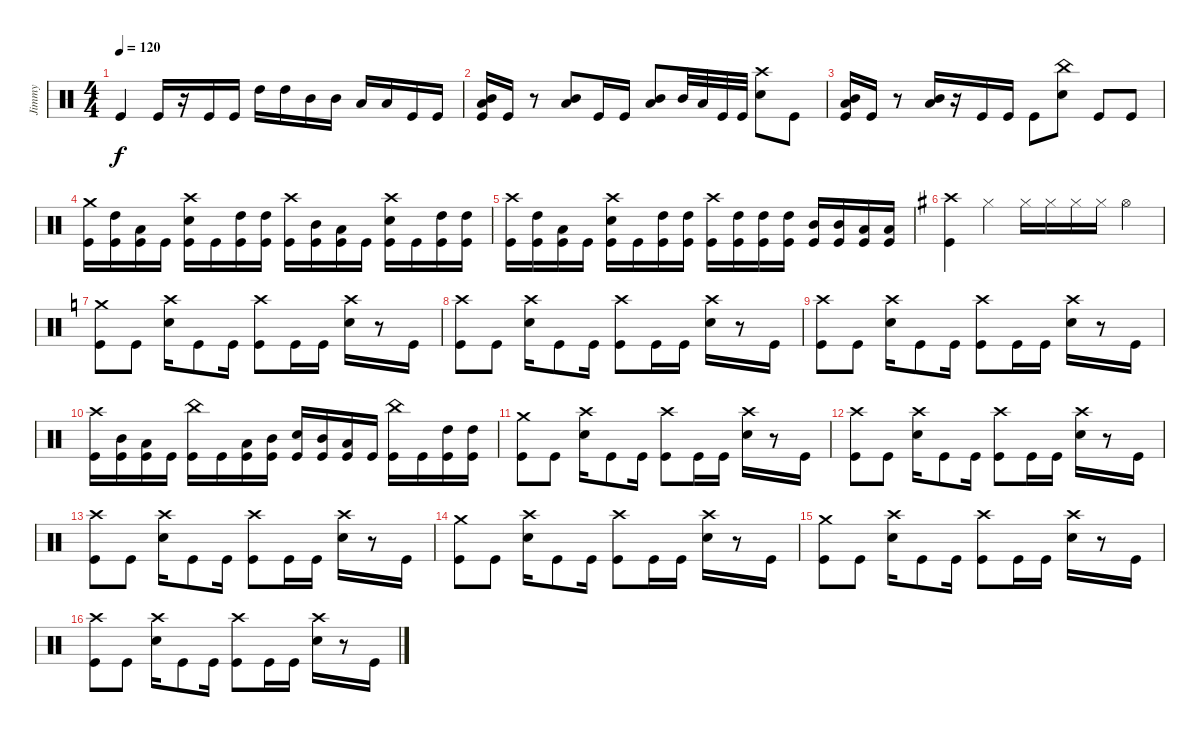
\track ("Jimmy" "Jimmy") {instrument percussion}
\staff {score}
\articulation defaults
\ts (4 4)
\tempo 120
\clef neutral
\ks c "Kick (hit)".4{dy f} "Kick (hit)".16
r.16 "Kick (hit)".16 "Kick (hit)".16 "High Tom (hit)".16 "High Tom (hit)".16 "Mid Tom (hit)".16 "Mid Tom (hit)".16 "Low Tom (hit)".16 "Low Tom (hit)".16 "Kick (hit)".16 "Kick (hit)".16 |
("Kick (hit)" "Mid Tom (hit)" "Low Tom (hit)").16 "Kick (hit)".16 r.8 ("Mid Tom (hit)" "Low Tom (hit)").8 "Kick (hit)".16 "Kick (hit)".16 ("Low Tom (hit)" "Mid Tom (hit)").8 "Mid Tom (hit)".32 "Low Tom (hit)".32 "Kick (hit)".32 "Kick (hit)".32 ("Snare (hit) 2" "Crash high (hit)").8 "Kick (hit)".8 |
("Kick (hit)" "Low Tom (hit)" "Mid Tom (hit)").16 "Kick (hit)".16 r.8 ("Low Tom (hit)" "Mid Tom (hit)").16 r.16 "Kick (hit)".16 "Kick (hit)".16 "Kick (hit)".8 ("Snare (hit) 2" "China (hit)").8 "Kick (hit)".8 "Kick (hit)".8 |
("Kick (hit)" "Crash medium (hit)").16 ("Kick (hit)" "High Tom (hit)").16 ("Kick (hit)" "Low Tom (hit)").16 "Kick (hit)".16 ("Snare (hit) 2" "Crash high (hit)" "Kick (hit)").16 "Kick (hit)".16 ("High Tom (hit)" "Kick (hit)").16 ("High Tom (hit)" "Kick (hit)").16 ("Crash high (hit)" "Kick (hit)").16 ("Mid Tom (hit)" "Kick (hit)").16 ("Low Tom (hit)" "Kick (hit)").16 "Kick (hit)".16 ("Snare (hit) 2" "Crash high (hit)" "Kick (hit)").16 "Kick (hit)".16 ("High Tom (hit)" "Kick (hit)").16 ("High Tom (hit)" "Kick (hit)").16 |
("Kick (hit)" "Crash high (hit)").16 ("Kick (hit)" "High Tom (hit)").16 ("Kick (hit)" "Low Tom (hit)").16 "Kick (hit)".16 ("Snare (hit) 2" "Crash high (hit)" "Kick (hit)").16 "Kick (hit)".16 ("High Tom (hit)" "Kick (hit)").16 ("High Tom (hit)" "Kick (hit)").16 ("Crash high (hit)" "Kick (hit)").16 ("High Tom (hit)" "Kick (hit)").16 ("High Tom (hit)" "Kick (hit)").16 ("High Tom (hit)" "Kick (hit)").16 ("Mid Tom (hit)" "Kick (hit)").16 ("Mid Tom (hit)" "Kick (hit)").16 ("Low Tom (hit)" "Kick (hit)").16 ("Low Tom (hit)" "Kick (hit)").16 |
\ks eminor
("Crash high (hit)" "Kick (hit)").4 "Hi-Hat (closed)".4 "Hi-Hat (closed)".16 "Hi-Hat (closed)".16 "Hi-Hat (closed)".16 "Hi-Hat (closed)".16 "Hi-Hat (open)".4 |
\ks c
("Crash medium (hit)" "Kick (hit)").8 "Kick (hit)".8 ("Crash high (hit)" "Snare (hit) 2").16 "Kick (hit)".8 "Kick (hit)".16 ("Crash high (hit)" "Kick (hit)").8 "Kick (hit)".16 "Kick (hit)".16 ("Snare (hit) 2" "Crash high (hit)").16 r.8 "Kick (hit)".16 |
("Kick (hit)" "Crash high (hit)").8 "Kick (hit)".8 ("Crash high (hit)" "Snare (hit) 2").16 "Kick (hit)".8 "Kick (hit)".16 ("Crash high (hit)" "Kick (hit)").8 "Kick (hit)".16 "Kick (hit)".16 ("Snare (hit) 2" "Crash high (hit)").16 r.8 "Kick (hit)".16 |
("Kick (hit)" "Crash high (hit)").8 "Kick (hit)".8 ("Crash high (hit)" "Snare (hit) 2").16 "Kick (hit)".8 "Kick (hit)".16 ("Crash high (hit)" "Kick (hit)").8 "Kick (hit)".16 "Kick (hit)".16 ("Snare (hit) 2" "Crash high (hit)").16 r.8 "Kick (hit)".16 |
("Kick (hit)" "Crash high (hit)").16 ("Kick (hit)" "Mid Tom (hit)").16 ("Kick (hit)" "Low Tom (hit)").16 "Kick (hit)".16 ("Kick (hit)" "China (hit)").16 "Kick (hit)".16 ("Kick (hit)" "Low Tom (hit)").16 ("Kick (hit)" "Mid Tom (hit)").16 ("Kick (hit)" "Snare (hit) 2").16 ("Kick (hit)" "Mid Tom (hit)").16 ("Kick (hit)" "Low Tom (hit)").16 "Kick (hit)".16 ("Kick (hit)" "China (hit)").16 "Kick (hit)".16 ("Kick (hit)" "High Tom (hit)").16 ("Kick (hit)" "High Tom (hit)").16 |
("Crash medium (hit)" "Kick (hit)").8 "Kick (hit)".8 ("Crash high (hit)" "Snare (hit) 2").16 "Kick (hit)".8 "Kick (hit)".16 ("Crash high (hit)" "Kick (hit)").8 "Kick (hit)".16 "Kick (hit)".16 ("Snare (hit) 2" "Crash high (hit)").16 r.8 "Kick (hit)".16 |
("Kick (hit)" "Crash high (hit)").8 "Kick (hit)".8 ("Crash high (hit)" "Snare (hit) 2").16 "Kick (hit)".8 "Kick (hit)".16 ("Crash high (hit)" "Kick (hit)").8 "Kick (hit)".16 "Kick (hit)".16 ("Snare (hit) 2" "Crash high (hit)").16 r.8 "Kick (hit)".16 |
("Kick (hit)" "Crash high (hit)").8 "Kick (hit)".8 ("Crash high (hit)" "Snare (hit) 2").16 "Kick (hit)".8 "Kick (hit)".16 ("Crash high (hit)" "Kick (hit)").8 "Kick (hit)".16 "Kick (hit)".16 ("Snare (hit) 2" "Crash high (hit)").16 r.8 "Kick (hit)".16 |
("Crash medium (hit)" "Kick (hit)").8 "Kick (hit)".8 ("Crash high (hit)" "Snare (hit) 2").16 "Kick (hit)".8 "Kick (hit)".16 ("Crash high (hit)" "Kick (hit)").8 "Kick (hit)".16 "Kick (hit)".16 ("Snare (hit) 2" "Crash high (hit)").16 r.8 "Kick (hit)".16 |
("Crash medium (hit)" "Kick (hit)").8 "Kick (hit)".8 ("Crash high (hit)" "Snare (hit) 2").16 "Kick (hit)".8 "Kick (hit)".16 ("Crash high (hit)" "Kick (hit)").8 "Kick (hit)".16 "Kick (hit)".16 ("Snare (hit) 2" "Crash high (hit)").16 r.8 "Kick (hit)".16 |
("Kick (hit)" "Crash high (hit)").8 "Kick (hit)".8 ("Crash high (hit)" "Snare (hit) 2").16 "Kick (hit)".8 "Kick (hit)".16 ("Crash high (hit)" "Kick (hit)").8 "Kick (hit)".16 "Kick (hit)".16 ("Snare (hit) 2" "Crash high (hit)").16 r.8 "Kick (hit)".16
